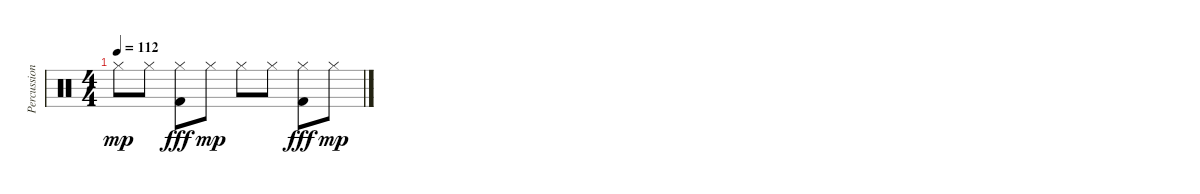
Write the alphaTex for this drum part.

\track ("Percussions" "Percussion") {instrument percussion}
\staff {score}
\articulation defaults
\ts (4 4)
\tempo 112
\clef neutral
\ks c "Hi-Hat (closed)".8{dy mp} "Hi-Hat (closed)".8
("Hi-Hat (closed)" "Kick (hit) 2").8{dy fff} "Hi-Hat (closed)".8{dy mp} "Hi-Hat (closed)".8 "Hi-Hat (closed)".8 ("Hi-Hat (closed)" "Kick (hit) 2").8{dy fff} "Hi-Hat (closed)".8{dy mp}
